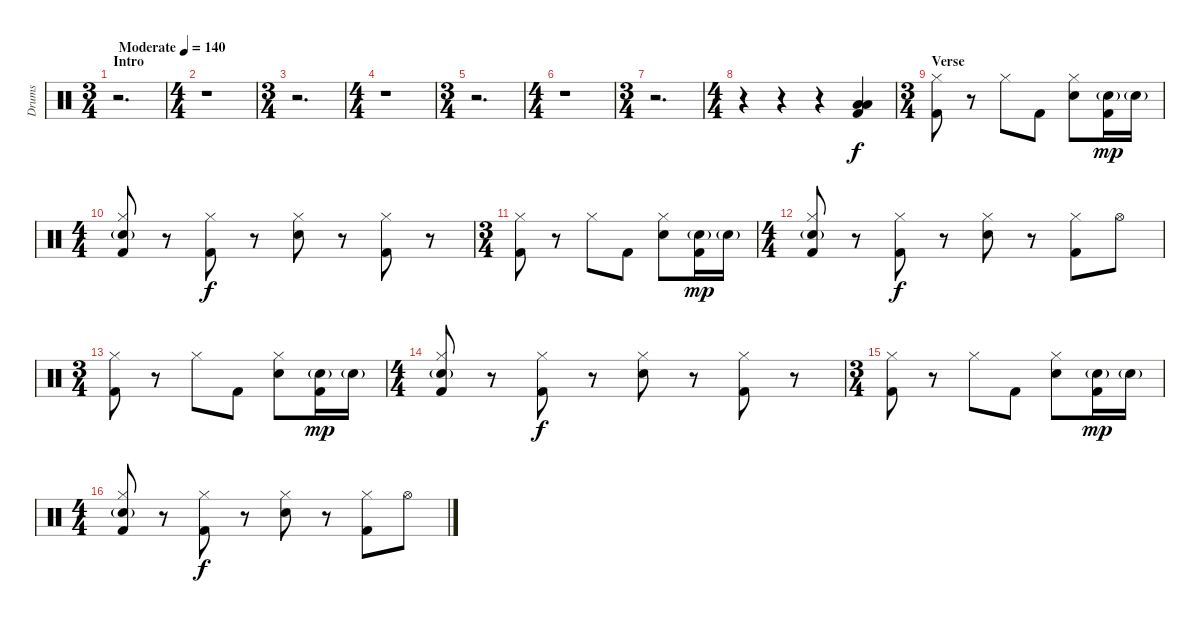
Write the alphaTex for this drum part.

\track ("Drums" "Drums") {instrument percussion}
\staff {score}
\articulation defaults
\ts (3 4)
\section ("" "Intro")
\tempo (140 "Moderate")
\clef neutral
\ks c
r.2{d dy f} |
\ts (4 4)
r.1 |
\ts (3 4)
r.2{d} |
\ts (4 4)
r.1 |
\ts (3 4)
r.2{d} |
\ts (4 4)
r.1 |
\ts (3 4)
r.2{d} |
\ts (4 4)
r.4 r.4 r.4 ("Low Tom (hit)" "Low Floor Tom (hit)" "Kick (hit) 2").4 |
\ts (3 4)
\section ("" "Verse")
("Hi-Hat (closed)" "Kick (hit) 2").8 r.8 "Hi-Hat (closed)".8 "Kick (hit) 2".8 ("Hi-Hat (closed)" "Snare (hit) 2").8 ("Snare (hit) 2"{g} "Kick (hit) 2").16{dy mp} "Snare (hit) 2"{g}.16 |
\ts (4 4)
("Hi-Hat (closed)" "Snare (hit) 2"{g} "Kick (hit) 2").8 r.8 ("Hi-Hat (closed)" "Kick (hit) 2").8{dy f} r.8 ("Hi-Hat (closed)" "Snare (hit) 2").8 r.8 ("Hi-Hat (closed)" "Kick (hit) 2").8 r.8 |
\ts (3 4)
("Hi-Hat (closed)" "Kick (hit) 2").8 r.8 "Hi-Hat (closed)".8 "Kick (hit) 2".8 ("Hi-Hat (closed)" "Snare (hit) 2").8 ("Snare (hit) 2"{g} "Kick (hit) 2").16{dy mp} "Snare (hit) 2"{g}.16 |
\ts (4 4)
("Hi-Hat (closed)" "Snare (hit) 2"{g} "Kick (hit) 2").8 r.8 ("Hi-Hat (closed)" "Kick (hit) 2").8{dy f} r.8 ("Hi-Hat (closed)" "Snare (hit) 2").8 r.8 ("Hi-Hat (closed)" "Kick (hit) 2").8 "Hi-Hat (open)".8 |
\ts (3 4)
("Hi-Hat (closed)" "Kick (hit) 2").8 r.8 "Hi-Hat (closed)".8 "Kick (hit) 2".8 ("Hi-Hat (closed)" "Snare (hit) 2").8 ("Snare (hit) 2"{g} "Kick (hit) 2").16{dy mp} "Snare (hit) 2"{g}.16 |
\ts (4 4)
("Hi-Hat (closed)" "Snare (hit) 2"{g} "Kick (hit) 2").8 r.8 ("Hi-Hat (closed)" "Kick (hit) 2").8{dy f} r.8 ("Hi-Hat (closed)" "Snare (hit) 2").8 r.8 ("Hi-Hat (closed)" "Kick (hit) 2").8 r.8 |
\ts (3 4)
("Hi-Hat (closed)" "Kick (hit) 2").8 r.8 "Hi-Hat (closed)".8 "Kick (hit) 2".8 ("Hi-Hat (closed)" "Snare (hit) 2").8 ("Snare (hit) 2"{g} "Kick (hit) 2").16{dy mp} "Snare (hit) 2"{g}.16 |
\ts (4 4)
("Hi-Hat (closed)" "Snare (hit) 2"{g} "Kick (hit) 2").8 r.8 ("Hi-Hat (closed)" "Kick (hit) 2").8{dy f} r.8 ("Hi-Hat (closed)" "Snare (hit) 2").8 r.8 ("Hi-Hat (closed)" "Kick (hit) 2").8 "Hi-Hat (open)".8
